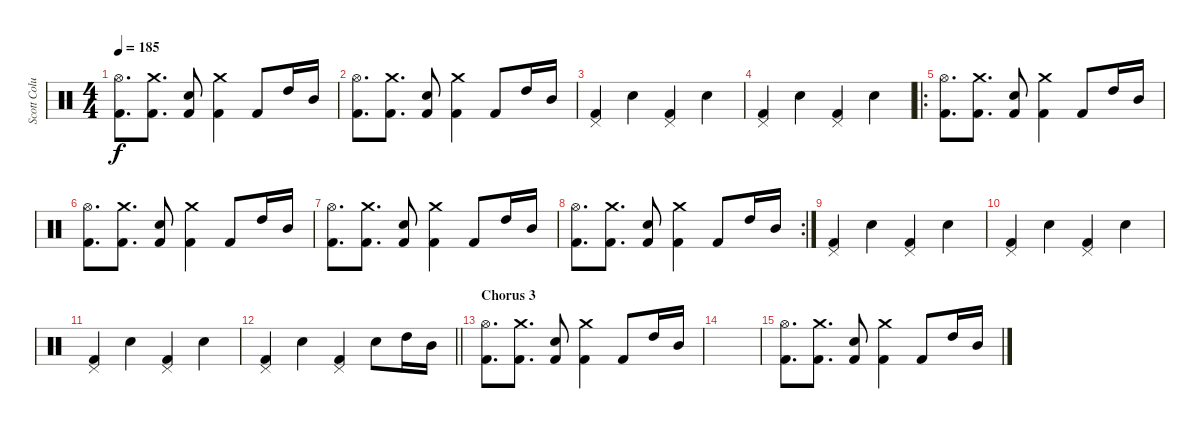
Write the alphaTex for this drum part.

\track ("Scott Columbus" "Scott Colu") {instrument percussion}
\staff {score}
\articulation defaults
\ts (4 4)
\tempo 185
\clef neutral
\ks c
("Hi-Hat (open)" "Kick (hit) 2").8{d dy f} ("Crash medium (hit)" "Kick (hit) 2").8{d} ("Snare (hit) 2" "Kick (hit) 2").8 ("Crash medium (hit)" "Kick (hit) 2").4 "Kick (hit) 2".8 "High Tom (hit)".16 "Mid Tom (hit)".16 |
("Hi-Hat (open)" "Kick (hit) 2").8{d} ("Crash medium (hit)" "Kick (hit) 2").8{d} ("Snare (hit) 2" "Kick (hit) 2").8 ("Crash medium (hit)" "Kick (hit) 2").4 "Kick (hit) 2".8 "High Tom (hit)".16 "Mid Tom (hit)".16 |
("Pedal Hi-Hat (hit)" "Kick (hit) 2").4 "Snare (hit) 2".4 ("Pedal Hi-Hat (hit)" "Kick (hit) 2").4 "Snare (hit) 2".4 |
("Pedal Hi-Hat (hit)" "Kick (hit) 2").4 "Snare (hit) 2".4 ("Pedal Hi-Hat (hit)" "Kick (hit) 2").4 "Snare (hit) 2".4 |
\ro
("Hi-Hat (open)" "Kick (hit) 2").8{d} ("Crash medium (hit)" "Kick (hit) 2").8{d} ("Snare (hit) 2" "Kick (hit) 2").8 ("Crash medium (hit)" "Kick (hit) 2").4 "Kick (hit) 2".8 "High Tom (hit)".16 "Mid Tom (hit)".16 |
("Hi-Hat (open)" "Kick (hit) 2").8{d} ("Crash medium (hit)" "Kick (hit) 2").8{d} ("Snare (hit) 2" "Kick (hit) 2").8 ("Crash medium (hit)" "Kick (hit) 2").4 "Kick (hit) 2".8 "High Tom (hit)".16 "Mid Tom (hit)".16 |
("Hi-Hat (open)" "Kick (hit) 2").8{d} ("Crash medium (hit)" "Kick (hit) 2").8{d} ("Snare (hit) 2" "Kick (hit) 2").8 ("Crash medium (hit)" "Kick (hit) 2").4 "Kick (hit) 2".8 "High Tom (hit)".16 "Mid Tom (hit)".16 |
\rc 2
("Hi-Hat (open)" "Kick (hit) 2").8{d} ("Crash medium (hit)" "Kick (hit) 2").8{d} ("Snare (hit) 2" "Kick (hit) 2").8 ("Crash medium (hit)" "Kick (hit) 2").4 "Kick (hit) 2".8 "High Tom (hit)".16 "Mid Tom (hit)".16 |
("Pedal Hi-Hat (hit)" "Kick (hit) 2").4 "Snare (hit) 2".4 ("Pedal Hi-Hat (hit)" "Kick (hit) 2").4 "Snare (hit) 2".4 |
("Pedal Hi-Hat (hit)" "Kick (hit) 2").4 "Snare (hit) 2".4 ("Pedal Hi-Hat (hit)" "Kick (hit) 2").4 "Snare (hit) 2".4 |
("Pedal Hi-Hat (hit)" "Kick (hit) 2").4 "Snare (hit) 2".4 ("Pedal Hi-Hat (hit)" "Kick (hit) 2").4 "Snare (hit) 2".4 |
\barLineRight lightlight
("Pedal Hi-Hat (hit)" "Kick (hit) 2").4 "Snare (hit) 2".4 ("Pedal Hi-Hat (hit)" "Kick (hit) 2").4 "Snare (hit) 2".8 "High Tom (hit)".16 "Mid Tom (hit)".16 |
\section ("" "Chorus 3")
("Hi-Hat (open)" "Kick (hit) 2").8{d} ("Crash medium (hit)" "Kick (hit) 2").8{d} ("Snare (hit) 2" "Kick (hit) 2").8 ("Crash medium (hit)" "Kick (hit) 2").4 "Kick (hit) 2".8 "High Tom (hit)".16 "Mid Tom (hit)".16 |
|
("Hi-Hat (open)" "Kick (hit) 2").8{d} ("Crash medium (hit)" "Kick (hit) 2").8{d} ("Snare (hit) 2" "Kick (hit) 2").8 ("Crash medium (hit)" "Kick (hit) 2").4 "Kick (hit) 2".8 "High Tom (hit)".16 "Mid Tom (hit)".16
